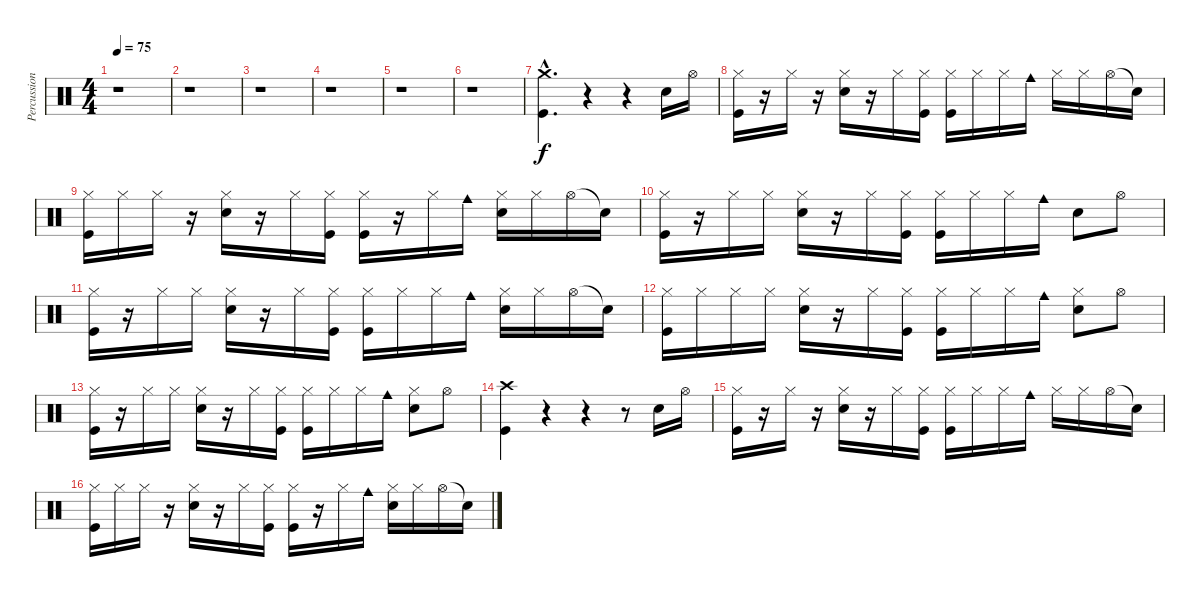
\track ("Percussions" "Percussion") {instrument percussion}
\staff {score}
\articulation defaults
\ts (4 4)
\tempo 75
\clef neutral
\ks c
r.1{dy f} |
r.1 |
r.1 |
r.1 |
r.1 |
r.1 |
("Crash medium (hit)"{hac} "Kick (hit)"{hac}).4{d} r.4 r.4 "Electric Snare (hit)".16 "Hi-Hat (open)".16 |
("Hi-Hat (closed)" "Kick (hit)").16 r.16 "Hi-Hat (closed)".16 r.16 ("Hi-Hat (closed)" "Electric Snare (hit)").16 r.16 "Hi-Hat (closed)".16 ("Hi-Hat (closed)" "Kick (hit)").16 ("Hi-Hat (closed)" "Kick (hit)").16 "Hi-Hat (closed)".16 "Hi-Hat (closed)".16 "Cowbell medium (hit)".16 "Hi-Hat (closed)".16 "Hi-Hat (closed)".16 "Hi-Hat (open)".16 "Snare (hit)"{t}.16 |
("Hi-Hat (closed)" "Kick (hit)").16 "Hi-Hat (closed)".16 "Hi-Hat (closed)".16 r.16 ("Hi-Hat (closed)" "Electric Snare (hit)").16 r.16 "Hi-Hat (closed)".16 ("Hi-Hat (closed)" "Kick (hit)").16 ("Hi-Hat (closed)" "Kick (hit)").16 r.16 "Hi-Hat (closed)".16 "Cowbell medium (hit)".16 ("Hi-Hat (closed)" "Electric Snare (hit)").16 "Hi-Hat (closed)".16 "Hi-Hat (open)".16 "Snare (hit)"{t}.16 |
("Hi-Hat (closed)" "Kick (hit)").16 r.16 "Hi-Hat (closed)".16 "Hi-Hat (closed)".16 ("Hi-Hat (closed)" "Electric Snare (hit)").16 r.16 "Hi-Hat (closed)".16 ("Hi-Hat (closed)" "Kick (hit)").16 ("Hi-Hat (closed)" "Kick (hit)").16 "Hi-Hat (closed)".16 "Hi-Hat (closed)".16 "Cowbell medium (hit)".16 "Electric Snare (hit)".8 "Hi-Hat (open)".8 |
("Hi-Hat (closed)" "Kick (hit)").16 r.16 "Hi-Hat (closed)".16 "Hi-Hat (closed)".16 ("Hi-Hat (closed)" "Electric Snare (hit)").16 r.16 "Hi-Hat (closed)".16 ("Hi-Hat (closed)" "Kick (hit)").16 ("Hi-Hat (closed)" "Kick (hit)").16 "Hi-Hat (closed)".16 "Hi-Hat (closed)".16 "Cowbell medium (hit)".16 ("Hi-Hat (closed)" "Electric Snare (hit)").16 "Hi-Hat (closed)".16 "Hi-Hat (open)".16 "Snare (hit)"{t}.16 |
("Hi-Hat (closed)" "Kick (hit)").16 "Hi-Hat (closed)".16 "Hi-Hat (closed)".16 "Hi-Hat (closed)".16 ("Hi-Hat (closed)" "Electric Snare (hit)").16 r.16 "Hi-Hat (closed)".16 ("Hi-Hat (closed)" "Kick (hit)").16 ("Hi-Hat (closed)" "Kick (hit)").16 "Hi-Hat (closed)".16 "Hi-Hat (closed)".16 "Cowbell medium (hit)".16 ("Hi-Hat (closed)" "Electric Snare (hit)").8 "Hi-Hat (open)".8 |
("Hi-Hat (closed)" "Kick (hit)").16 r.16 "Hi-Hat (closed)".16 "Hi-Hat (closed)".16 ("Hi-Hat (closed)" "Electric Snare (hit)").16 r.16 "Hi-Hat (closed)".16 ("Hi-Hat (closed)" "Kick (hit)").16 ("Hi-Hat (closed)" "Kick (hit)").16 "Hi-Hat (closed)".16 "Hi-Hat (closed)".16 "Cowbell medium (hit)".16 ("Hi-Hat (closed)" "Electric Snare (hit)").8 "Hi-Hat (open)".8 |
("Crash high (hit)" "Kick (hit)").4 r.4 r.4 r.8 "Electric Snare (hit)".16 "Hi-Hat (open)".16 |
("Hi-Hat (closed)" "Kick (hit)").16 r.16 "Hi-Hat (closed)".16 r.16 ("Hi-Hat (closed)" "Electric Snare (hit)").16 r.16 "Hi-Hat (closed)".16 ("Hi-Hat (closed)" "Kick (hit)").16 ("Hi-Hat (closed)" "Kick (hit)").16 "Hi-Hat (closed)".16 "Hi-Hat (closed)".16 "Cowbell medium (hit)".16 "Hi-Hat (closed)".16 "Hi-Hat (closed)".16 "Hi-Hat (open)".16 "Snare (hit)"{t}.16 |
("Hi-Hat (closed)" "Kick (hit)").16 "Hi-Hat (closed)".16 "Hi-Hat (closed)".16 r.16 ("Hi-Hat (closed)" "Electric Snare (hit)").16 r.16 "Hi-Hat (closed)".16 ("Hi-Hat (closed)" "Kick (hit)").16 ("Hi-Hat (closed)" "Kick (hit)").16 r.16 "Hi-Hat (closed)".16 "Cowbell medium (hit)".16 ("Hi-Hat (closed)" "Electric Snare (hit)").16 "Hi-Hat (closed)".16 "Hi-Hat (open)".16 "Snare (hit)"{t}.16
